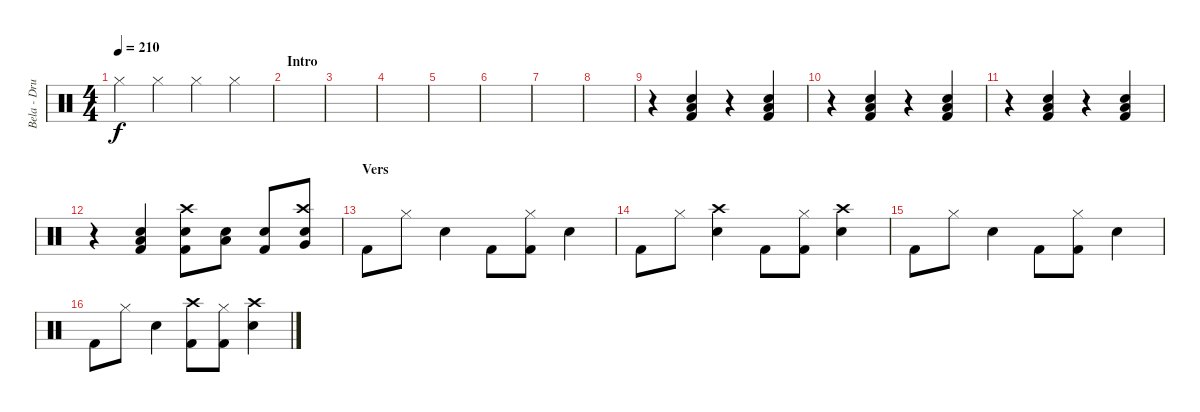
\track ("Bela - Drums" "Bela - Dru") {instrument percussion}
\staff {score}
\articulation defaults
\ts (4 4)
\tempo 210
\clef neutral
\ks c "Hi-Hat (closed)".4{dy f} "Hi-Hat (closed)".4 "Hi-Hat (closed)".4 "Hi-Hat (closed)".4
|
\section ("" "Intro")
|
|
|
|
|
|
|
r.4 ("Low Floor Tom (hit)" "Electric Snare (hit)" "Kick (hit) 2").4 r.4 ("Low Floor Tom (hit)" "Electric Snare (hit)" "Kick (hit) 2").4 |
r.4 ("Low Floor Tom (hit)" "Electric Snare (hit)" "Kick (hit) 2").4 r.4 ("Low Floor Tom (hit)" "Electric Snare (hit)" "Kick (hit) 2").4 |
r.4 ("Low Floor Tom (hit)" "Electric Snare (hit)" "Kick (hit) 2").4 r.4 ("Low Floor Tom (hit)" "Electric Snare (hit)" "Kick (hit) 2").4 |
r.4 ("Low Floor Tom (hit)" "Electric Snare (hit)" "Kick (hit) 2").4 ("Crash high (hit)" "Electric Snare (hit)" "Kick (hit) 2").8 ("Low Floor Tom (hit)" "Electric Snare (hit)").8 ("Electric Snare (hit)" "Kick (hit) 2").8 ("Crash high (hit)" "Very Low Tom (hit)" "Electric Snare (hit)").8 |
\section ("" "Vers")
"Kick (hit) 2".8 "Hi-Hat (closed)".8 "Electric Snare (hit)".4 "Kick (hit) 2".8 ("Hi-Hat (closed)" "Kick (hit) 2").8 "Electric Snare (hit)".4 |
"Kick (hit) 2".8 "Hi-Hat (closed)".8 ("Crash high (hit)" "Electric Snare (hit)").4 "Kick (hit) 2".8 ("Hi-Hat (closed)" "Kick (hit) 2").8 ("Crash high (hit)" "Electric Snare (hit)").4 |
"Kick (hit) 2".8 "Hi-Hat (closed)".8 "Electric Snare (hit)".4 "Kick (hit) 2".8 ("Hi-Hat (closed)" "Kick (hit) 2").8 "Electric Snare (hit)".4 |
"Kick (hit) 2".8 "Hi-Hat (closed)".8 "Electric Snare (hit)".4 ("Crash high (hit)" "Kick (hit) 2").8 ("Hi-Hat (closed)" "Kick (hit) 2").8 ("Crash high (hit)" "Electric Snare (hit)").4
